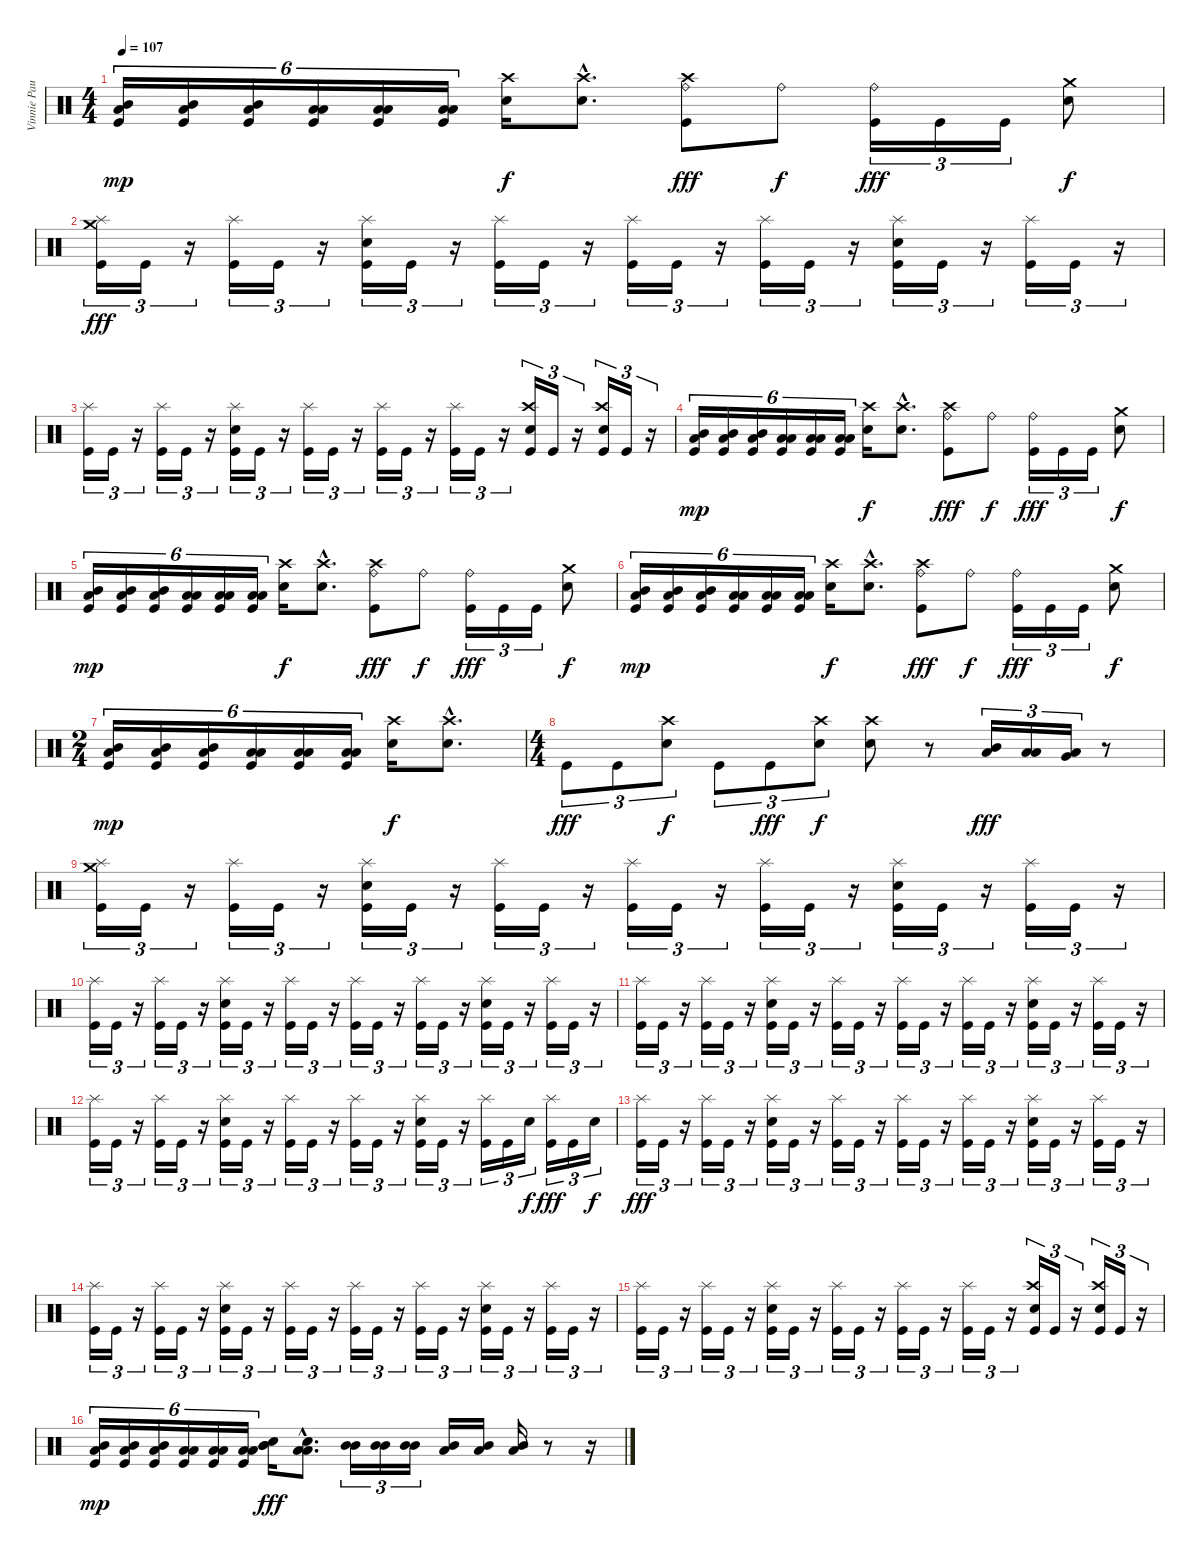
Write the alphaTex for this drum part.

\track ("Vinnie Paul" "Vinnie Pau") {instrument percussion}
\staff {score}
\articulation defaults
\ts (4 4)
\tempo 107
\clef neutral
\ks c
("Kick (hit)" "Mid Tom (hit)" "Low Tom (hit)").16{tu (6 4) dy mp} ("Kick (hit)" "Mid Tom (hit)" "Low Tom (hit)").16{tu (6 4)} ("Kick (hit)" "Mid Tom (hit)" "Low Tom (hit)").16{tu (6 4)} ("Kick (hit)" "Low Tom (hit)" "Low Tom (hit)").16{tu (6 4)} ("Kick (hit)" "Low Tom (hit)" "Low Tom (hit)").16{tu (6 4)} ("Kick (hit)" "Low Tom (hit)" "Low Tom (hit)").16{tu (6 4)} ("Crash high (hit)" "Electric Snare (hit)").16{dy f} ("Crash high (hit)"{hac} "Electric Snare (hit)"{hac}).8{d} ("Crash high (hit)" "Ride (bell)" "Kick (hit)").8{dy fff} "Ride (bell)".8{dy f} ("Ride (bell)" "Kick (hit)").16{tu (3 2) dy fff} "Kick (hit)".16{tu (3 2)} "Kick (hit)".16{tu (3 2)} ("Crash medium (hit)" "Electric Snare (hit)").8{dy f} |
("Splash (hit)" "Crash medium (hit)" "Kick (hit)").16{tu (3 2) dy fff} "Kick (hit)".16{tu (3 2)} r.16{tu (3 2)} ("Splash (hit)" "Kick (hit)").16{tu (3 2)} "Kick (hit)".16{tu (3 2)} r.16{tu (3 2)} ("Splash (hit)" "Kick (hit)" "Electric Snare (hit)").16{tu (3 2)} "Kick (hit)".16{tu (3 2)} r.16{tu (3 2)} ("Splash (hit)" "Kick (hit)").16{tu (3 2)} "Kick (hit)".16{tu (3 2)} r.16{tu (3 2)} ("Splash (hit)" "Kick (hit)").16{tu (3 2)} "Kick (hit)".16{tu (3 2)} r.16{tu (3 2)} ("Splash (hit)" "Kick (hit)").16{tu (3 2)} "Kick (hit)".16{tu (3 2)} r.16{tu (3 2)} ("Splash (hit)" "Kick (hit)" "Electric Snare (hit)").16{tu (3 2)} "Kick (hit)".16{tu (3 2)} r.16{tu (3 2)} ("Splash (hit)" "Kick (hit)").16{tu (3 2)} "Kick (hit)".16{tu (3 2)} r.16{tu (3 2)} |
("Splash (hit)" "Kick (hit)").16{tu (3 2)} "Kick (hit)".16{tu (3 2)} r.16{tu (3 2)} ("Splash (hit)" "Kick (hit)").16{tu (3 2)} "Kick (hit)".16{tu (3 2)} r.16{tu (3 2)} ("Splash (hit)" "Kick (hit)" "Electric Snare (hit)").16{tu (3 2)} "Kick (hit)".16{tu (3 2)} r.16{tu (3 2)} ("Splash (hit)" "Kick (hit)").16{tu (3 2)} "Kick (hit)".16{tu (3 2)} r.16{tu (3 2)} ("Splash (hit)" "Kick (hit)").16{tu (3 2)} "Kick (hit)".16{tu (3 2)} r.16{tu (3 2)} ("Splash (hit)" "Kick (hit)").16{tu (3 2)} "Kick (hit)".16{tu (3 2)} r.16{tu (3 2)} ("Crash high (hit)" "Kick (hit)" "Electric Snare (hit)").16{tu (3 2)} "Kick (hit)".16{tu (3 2)} r.16{tu (3 2)} ("Crash high (hit)" "Kick (hit)" "Electric Snare (hit)").16{tu (3 2)} "Kick (hit)".16{tu (3 2)} r.16{tu (3 2)} |
("Kick (hit)" "Mid Tom (hit)" "Low Tom (hit)").16{tu (6 4) dy mp} ("Kick (hit)" "Mid Tom (hit)" "Low Tom (hit)").16{tu (6 4)} ("Kick (hit)" "Mid Tom (hit)" "Low Tom (hit)").16{tu (6 4)} ("Kick (hit)" "Low Tom (hit)" "Low Tom (hit)").16{tu (6 4)} ("Kick (hit)" "Low Tom (hit)" "Low Tom (hit)").16{tu (6 4)} ("Kick (hit)" "Low Tom (hit)" "Low Tom (hit)").16{tu (6 4)} ("Crash high (hit)" "Electric Snare (hit)").16{dy f} ("Crash high (hit)"{hac} "Electric Snare (hit)"{hac}).8{d} ("Crash high (hit)" "Ride (bell)" "Kick (hit)").8{dy fff} "Ride (bell)".8{dy f} ("Ride (bell)" "Kick (hit)").16{tu (3 2) dy fff} "Kick (hit)".16{tu (3 2)} "Kick (hit)".16{tu (3 2)} ("Crash medium (hit)" "Electric Snare (hit)").8{dy f} |
("Kick (hit)" "Mid Tom (hit)" "Low Tom (hit)").16{tu (6 4) dy mp} ("Kick (hit)" "Mid Tom (hit)" "Low Tom (hit)").16{tu (6 4)} ("Kick (hit)" "Mid Tom (hit)" "Low Tom (hit)").16{tu (6 4)} ("Kick (hit)" "Low Tom (hit)" "Low Tom (hit)").16{tu (6 4)} ("Kick (hit)" "Low Tom (hit)" "Low Tom (hit)").16{tu (6 4)} ("Kick (hit)" "Low Tom (hit)" "Low Tom (hit)").16{tu (6 4)} ("Crash high (hit)" "Electric Snare (hit)").16{dy f} ("Crash high (hit)"{hac} "Electric Snare (hit)"{hac}).8{d} ("Crash high (hit)" "Ride (bell)" "Kick (hit)").8{dy fff} "Ride (bell)".8{dy f} ("Ride (bell)" "Kick (hit)").16{tu (3 2) dy fff} "Kick (hit)".16{tu (3 2)} "Kick (hit)".16{tu (3 2)} ("Crash medium (hit)" "Electric Snare (hit)").8{dy f} |
("Kick (hit)" "Mid Tom (hit)" "Low Tom (hit)").16{tu (6 4) dy mp} ("Kick (hit)" "Mid Tom (hit)" "Low Tom (hit)").16{tu (6 4)} ("Kick (hit)" "Mid Tom (hit)" "Low Tom (hit)").16{tu (6 4)} ("Kick (hit)" "Low Tom (hit)" "Low Tom (hit)").16{tu (6 4)} ("Kick (hit)" "Low Tom (hit)" "Low Tom (hit)").16{tu (6 4)} ("Kick (hit)" "Low Tom (hit)" "Low Tom (hit)").16{tu (6 4)} ("Crash high (hit)" "Electric Snare (hit)").16{dy f} ("Crash high (hit)"{hac} "Electric Snare (hit)"{hac}).8{d} ("Crash high (hit)" "Ride (bell)" "Kick (hit)").8{dy fff} "Ride (bell)".8{dy f} ("Ride (bell)" "Kick (hit)").16{tu (3 2) dy fff} "Kick (hit)".16{tu (3 2)} "Kick (hit)".16{tu (3 2)} ("Crash medium (hit)" "Electric Snare (hit)").8{dy f} |
\ts (2 4)
("Kick (hit)" "Mid Tom (hit)" "Low Tom (hit)").16{tu (6 4) dy mp} ("Kick (hit)" "Mid Tom (hit)" "Low Tom (hit)").16{tu (6 4)} ("Kick (hit)" "Mid Tom (hit)" "Low Tom (hit)").16{tu (6 4)} ("Kick (hit)" "Low Tom (hit)" "Low Tom (hit)").16{tu (6 4)} ("Kick (hit)" "Low Tom (hit)" "Low Tom (hit)").16{tu (6 4)} ("Kick (hit)" "Low Tom (hit)" "Low Tom (hit)").16{tu (6 4)} ("Crash high (hit)" "Electric Snare (hit)").16{dy f} ("Crash high (hit)"{hac} "Electric Snare (hit)"{hac}).8{d} |
\ts (4 4)
"Kick (hit)".8{tu (3 2) dy fff} "Kick (hit)".8{tu (3 2)} ("Crash high (hit)" "Electric Snare (hit)").8{tu (3 2) dy f} "Kick (hit)".8{tu (3 2)} "Kick (hit)".8{tu (3 2) dy fff} ("Crash high (hit)" "Electric Snare (hit)").8{tu (3 2) dy f} ("Crash high (hit)" "Electric Snare (hit)").8 r.8 ("Mid Tom (hit)" "Low Tom (hit)").16{tu (3 2) dy fff} ("Low Tom (hit)" "Low Tom (hit)").16{tu (3 2)} ("Low Tom (hit)" "Very Low Tom (hit)").16{tu (3 2)} r.8 |
("Splash (hit)" "Crash medium (hit)" "Kick (hit)").16{tu (3 2)} "Kick (hit)".16{tu (3 2)} r.16{tu (3 2)} ("Splash (hit)" "Kick (hit)").16{tu (3 2)} "Kick (hit)".16{tu (3 2)} r.16{tu (3 2)} ("Splash (hit)" "Kick (hit)" "Electric Snare (hit)").16{tu (3 2)} "Kick (hit)".16{tu (3 2)} r.16{tu (3 2)} ("Splash (hit)" "Kick (hit)").16{tu (3 2)} "Kick (hit)".16{tu (3 2)} r.16{tu (3 2)} ("Splash (hit)" "Kick (hit)").16{tu (3 2)} "Kick (hit)".16{tu (3 2)} r.16{tu (3 2)} ("Splash (hit)" "Kick (hit)").16{tu (3 2)} "Kick (hit)".16{tu (3 2)} r.16{tu (3 2)} ("Splash (hit)" "Kick (hit)" "Electric Snare (hit)").16{tu (3 2)} "Kick (hit)".16{tu (3 2)} r.16{tu (3 2)} ("Splash (hit)" "Kick (hit)").16{tu (3 2)} "Kick (hit)".16{tu (3 2)} r.16{tu (3 2)} |
("Splash (hit)" "Kick (hit)").16{tu (3 2)} "Kick (hit)".16{tu (3 2)} r.16{tu (3 2)} ("Splash (hit)" "Kick (hit)").16{tu (3 2)} "Kick (hit)".16{tu (3 2)} r.16{tu (3 2)} ("Splash (hit)" "Kick (hit)" "Electric Snare (hit)").16{tu (3 2)} "Kick (hit)".16{tu (3 2)} r.16{tu (3 2)} ("Splash (hit)" "Kick (hit)").16{tu (3 2)} "Kick (hit)".16{tu (3 2)} r.16{tu (3 2)} ("Splash (hit)" "Kick (hit)").16{tu (3 2)} "Kick (hit)".16{tu (3 2)} r.16{tu (3 2)} ("Splash (hit)" "Kick (hit)").16{tu (3 2)} "Kick (hit)".16{tu (3 2)} r.16{tu (3 2)} ("Splash (hit)" "Kick (hit)" "Electric Snare (hit)").16{tu (3 2)} "Kick (hit)".16{tu (3 2)} r.16{tu (3 2)} ("Splash (hit)" "Kick (hit)").16{tu (3 2)} "Kick (hit)".16{tu (3 2)} r.16{tu (3 2)} |
("Splash (hit)" "Kick (hit)").16{tu (3 2)} "Kick (hit)".16{tu (3 2)} r.16{tu (3 2)} ("Splash (hit)" "Kick (hit)").16{tu (3 2)} "Kick (hit)".16{tu (3 2)} r.16{tu (3 2)} ("Splash (hit)" "Kick (hit)" "Electric Snare (hit)").16{tu (3 2)} "Kick (hit)".16{tu (3 2)} r.16{tu (3 2)} ("Splash (hit)" "Kick (hit)").16{tu (3 2)} "Kick (hit)".16{tu (3 2)} r.16{tu (3 2)} ("Splash (hit)" "Kick (hit)").16{tu (3 2)} "Kick (hit)".16{tu (3 2)} r.16{tu (3 2)} ("Splash (hit)" "Kick (hit)").16{tu (3 2)} "Kick (hit)".16{tu (3 2)} r.16{tu (3 2)} ("Splash (hit)" "Kick (hit)" "Electric Snare (hit)").16{tu (3 2)} "Kick (hit)".16{tu (3 2)} r.16{tu (3 2)} ("Splash (hit)" "Kick (hit)").16{tu (3 2)} "Kick (hit)".16{tu (3 2)} r.16{tu (3 2)} |
("Splash (hit)" "Kick (hit)").16{tu (3 2)} "Kick (hit)".16{tu (3 2)} r.16{tu (3 2)} ("Splash (hit)" "Kick (hit)").16{tu (3 2)} "Kick (hit)".16{tu (3 2)} r.16{tu (3 2)} ("Splash (hit)" "Kick (hit)" "Electric Snare (hit)").16{tu (3 2)} "Kick (hit)".16{tu (3 2)} r.16{tu (3 2)} ("Splash (hit)" "Kick (hit)").16{tu (3 2)} "Kick (hit)".16{tu (3 2)} r.16{tu (3 2)} ("Splash (hit)" "Kick (hit)").16{tu (3 2)} "Kick (hit)".16{tu (3 2)} r.16{tu (3 2)} ("Splash (hit)" "Kick (hit)" "Electric Snare (hit)").16{tu (3 2)} "Kick (hit)".16{tu (3 2)} r.16{tu (3 2)} ("Splash (hit)" "Kick (hit)").16{tu (3 2)} "Kick (hit)".16{tu (3 2)} "Electric Snare (hit)".16{tu (3 2) dy f} ("Splash (hit)" "Kick (hit)").16{tu (3 2) dy fff} "Kick (hit)".16{tu (3 2)} "Electric Snare (hit)".16{tu (3 2) dy f} |
("Splash (hit)" "Kick (hit)").16{tu (3 2) dy fff} "Kick (hit)".16{tu (3 2)} r.16{tu (3 2)} ("Splash (hit)" "Kick (hit)").16{tu (3 2)} "Kick (hit)".16{tu (3 2)} r.16{tu (3 2)} ("Splash (hit)" "Kick (hit)" "Electric Snare (hit)").16{tu (3 2)} "Kick (hit)".16{tu (3 2)} r.16{tu (3 2)} ("Splash (hit)" "Kick (hit)").16{tu (3 2)} "Kick (hit)".16{tu (3 2)} r.16{tu (3 2)} ("Splash (hit)" "Kick (hit)").16{tu (3 2)} "Kick (hit)".16{tu (3 2)} r.16{tu (3 2)} ("Splash (hit)" "Kick (hit)").16{tu (3 2)} "Kick (hit)".16{tu (3 2)} r.16{tu (3 2)} ("Splash (hit)" "Kick (hit)" "Electric Snare (hit)").16{tu (3 2)} "Kick (hit)".16{tu (3 2)} r.16{tu (3 2)} ("Splash (hit)" "Kick (hit)").16{tu (3 2)} "Kick (hit)".16{tu (3 2)} r.16{tu (3 2)} |
("Splash (hit)" "Kick (hit)").16{tu (3 2)} "Kick (hit)".16{tu (3 2)} r.16{tu (3 2)} ("Splash (hit)" "Kick (hit)").16{tu (3 2)} "Kick (hit)".16{tu (3 2)} r.16{tu (3 2)} ("Splash (hit)" "Kick (hit)" "Electric Snare (hit)").16{tu (3 2)} "Kick (hit)".16{tu (3 2)} r.16{tu (3 2)} ("Splash (hit)" "Kick (hit)").16{tu (3 2)} "Kick (hit)".16{tu (3 2)} r.16{tu (3 2)} ("Splash (hit)" "Kick (hit)").16{tu (3 2)} "Kick (hit)".16{tu (3 2)} r.16{tu (3 2)} ("Splash (hit)" "Kick (hit)").16{tu (3 2)} "Kick (hit)".16{tu (3 2)} r.16{tu (3 2)} ("Splash (hit)" "Kick (hit)" "Electric Snare (hit)").16{tu (3 2)} "Kick (hit)".16{tu (3 2)} r.16{tu (3 2)} ("Splash (hit)" "Kick (hit)").16{tu (3 2)} "Kick (hit)".16{tu (3 2)} r.16{tu (3 2)} |
("Splash (hit)" "Kick (hit)").16{tu (3 2)} "Kick (hit)".16{tu (3 2)} r.16{tu (3 2)} ("Splash (hit)" "Kick (hit)").16{tu (3 2)} "Kick (hit)".16{tu (3 2)} r.16{tu (3 2)} ("Splash (hit)" "Kick (hit)" "Electric Snare (hit)").16{tu (3 2)} "Kick (hit)".16{tu (3 2)} r.16{tu (3 2)} ("Splash (hit)" "Kick (hit)").16{tu (3 2)} "Kick (hit)".16{tu (3 2)} r.16{tu (3 2)} ("Splash (hit)" "Kick (hit)").16{tu (3 2)} "Kick (hit)".16{tu (3 2)} r.16{tu (3 2)} ("Splash (hit)" "Kick (hit)").16{tu (3 2)} "Kick (hit)".16{tu (3 2)} r.16{tu (3 2)} ("Crash high (hit)" "Kick (hit)" "Electric Snare (hit)").16{tu (3 2)} "Kick (hit)".16{tu (3 2)} r.16{tu (3 2)} ("Crash high (hit)" "Kick (hit)" "Electric Snare (hit)").16{tu (3 2)} "Kick (hit)".16{tu (3 2)} r.16{tu (3 2)} |
("Kick (hit)" "Mid Tom (hit)" "Low Tom (hit)").16{tu (6 4) dy mp} ("Kick (hit)" "Mid Tom (hit)" "Low Tom (hit)").16{tu (6 4)} ("Kick (hit)" "Mid Tom (hit)" "Low Tom (hit)").16{tu (6 4)} ("Kick (hit)" "Low Tom (hit)" "Low Tom (hit)").16{tu (6 4)} ("Kick (hit)" "Low Tom (hit)" "Low Tom (hit)").16{tu (6 4)} ("Kick (hit)" "Low Tom (hit)" "Low Tom (hit)").16{tu (6 4)} ("Electric Snare (hit)" "Mid Tom (hit)" "Mid Tom (hit)").16{dy fff} ("Electric Snare (hit)"{hac} "Low Tom (hit)"{hac} "Low Tom (hit)"{hac}).8{d} ("Mid Tom (hit)" "Mid Tom (hit)").16{tu (3 2)} ("Mid Tom (hit)" "Mid Tom (hit)").16{tu (3 2)} ("Mid Tom (hit)" "Mid Tom (hit)").16{tu (3 2)} ("Mid Tom (hit)" "Low Tom (hit)").16 ("Mid Tom (hit)" "Low Tom (hit)").16 ("Mid Tom (hit)" "Low Tom (hit)").16 r.8 r.16
